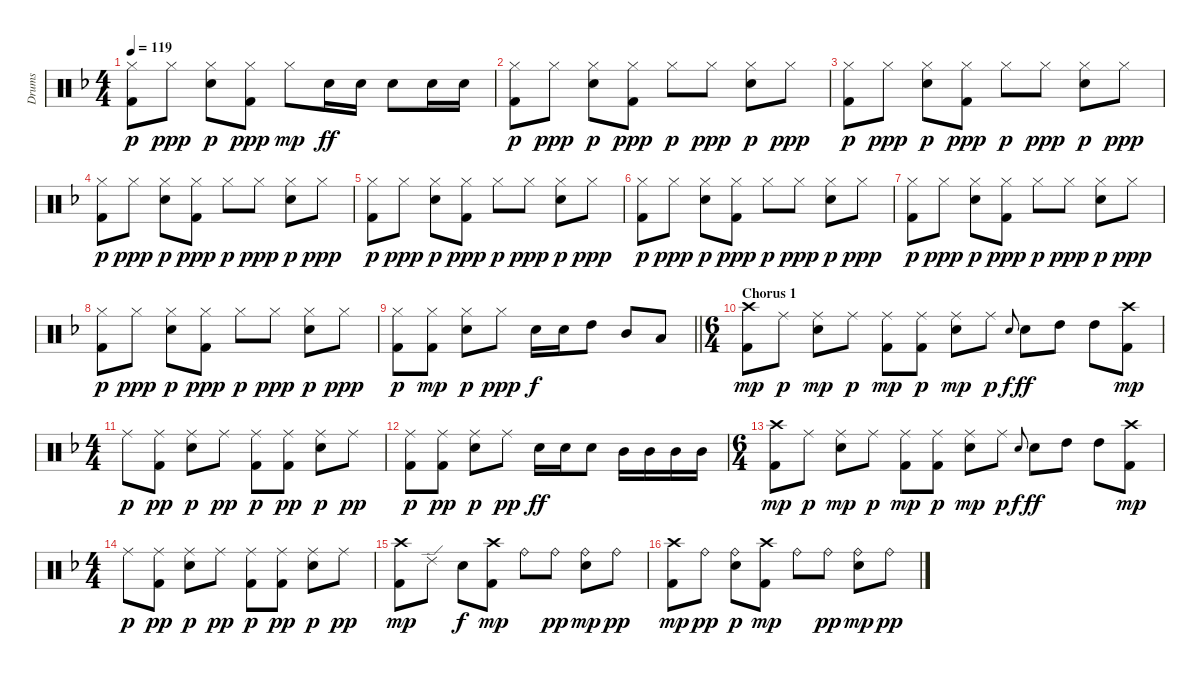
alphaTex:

\track ("Drums" "Drums") {instrument percussion}
\staff {score}
\articulation defaults
\ts (4 4)
\tempo 119
\clef neutral
\ks f
("Hi-Hat (closed)" "Kick (hit) 2").8{dy p} "Hi-Hat (closed)".8{dy ppp} ("Hi-Hat (closed)" "Electric Snare (hit)").8{dy p} ("Hi-Hat (closed)" "Kick (hit) 2").8{dy ppp} "Hi-Hat (closed)".8{dy mp} "Electric Snare (hit)".16{dy ff} "Electric Snare (hit)".16 "Electric Snare (hit)".8 "Electric Snare (hit)".16 "Electric Snare (hit)".16 |
("Hi-Hat (closed)" "Kick (hit) 2").8{dy p} "Hi-Hat (closed)".8{dy ppp} ("Hi-Hat (closed)" "Electric Snare (hit)").8{dy p} ("Hi-Hat (closed)" "Kick (hit) 2").8{dy ppp} "Hi-Hat (closed)".8{dy p} "Hi-Hat (closed)".8{dy ppp} ("Hi-Hat (closed)" "Electric Snare (hit)").8{dy p} "Hi-Hat (closed)".8{dy ppp} |
("Hi-Hat (closed)" "Kick (hit) 2").8{dy p} "Hi-Hat (closed)".8{dy ppp} ("Hi-Hat (closed)" "Electric Snare (hit)").8{dy p} ("Hi-Hat (closed)" "Kick (hit) 2").8{dy ppp} "Hi-Hat (closed)".8{dy p} "Hi-Hat (closed)".8{dy ppp} ("Hi-Hat (closed)" "Electric Snare (hit)").8{dy p} "Hi-Hat (closed)".8{dy ppp} |
("Hi-Hat (closed)" "Kick (hit) 2").8{dy p} "Hi-Hat (closed)".8{dy ppp} ("Hi-Hat (closed)" "Electric Snare (hit)").8{dy p} ("Hi-Hat (closed)" "Kick (hit) 2").8{dy ppp} "Hi-Hat (closed)".8{dy p} "Hi-Hat (closed)".8{dy ppp} ("Hi-Hat (closed)" "Electric Snare (hit)").8{dy p} "Hi-Hat (closed)".8{dy ppp} |
("Hi-Hat (closed)" "Kick (hit) 2").8{dy p} "Hi-Hat (closed)".8{dy ppp} ("Hi-Hat (closed)" "Electric Snare (hit)").8{dy p} ("Hi-Hat (closed)" "Kick (hit) 2").8{dy ppp} "Hi-Hat (closed)".8{dy p} "Hi-Hat (closed)".8{dy ppp} ("Hi-Hat (closed)" "Electric Snare (hit)").8{dy p} "Hi-Hat (closed)".8{dy ppp} |
("Hi-Hat (closed)" "Kick (hit) 2").8{dy p} "Hi-Hat (closed)".8{dy ppp} ("Hi-Hat (closed)" "Electric Snare (hit)").8{dy p} ("Hi-Hat (closed)" "Kick (hit) 2").8{dy ppp} "Hi-Hat (closed)".8{dy p} "Hi-Hat (closed)".8{dy ppp} ("Hi-Hat (closed)" "Electric Snare (hit)").8{dy p} "Hi-Hat (closed)".8{dy ppp} |
("Hi-Hat (closed)" "Kick (hit) 2").8{dy p} "Hi-Hat (closed)".8{dy ppp} ("Hi-Hat (closed)" "Electric Snare (hit)").8{dy p} ("Hi-Hat (closed)" "Kick (hit) 2").8{dy ppp} "Hi-Hat (closed)".8{dy p} "Hi-Hat (closed)".8{dy ppp} ("Hi-Hat (closed)" "Electric Snare (hit)").8{dy p} "Hi-Hat (closed)".8{dy ppp} |
("Hi-Hat (closed)" "Kick (hit) 2").8{dy p} "Hi-Hat (closed)".8{dy ppp} ("Hi-Hat (closed)" "Electric Snare (hit)").8{dy p} ("Hi-Hat (closed)" "Kick (hit) 2").8{dy ppp} "Hi-Hat (closed)".8{dy p} "Hi-Hat (closed)".8{dy ppp} ("Hi-Hat (closed)" "Electric Snare (hit)").8{dy p} "Hi-Hat (closed)".8{dy ppp} |
\barLineRight lightlight
("Hi-Hat (closed)" "Kick (hit) 2").8{dy p} ("Hi-Hat (closed)" "Kick (hit) 2").8{dy mp} ("Hi-Hat (closed)" "Electric Snare (hit)").8{dy p} "Hi-Hat (closed)".8{dy ppp} "Electric Snare (hit)".16{dy f} "Electric Snare (hit)".16 "High Tom (hit)".8 "Mid Tom (hit)".8 "Low Tom (hit)".8 |
\ts (6 4)
\section ("" "Chorus 1")
("Kick (hit) 2" "Crash high (hit)").8{dy mp} "Ride (middle)".8{dy p} ("Ride (middle)" "Electric Snare (hit)").8{dy mp} "Ride (middle)".8{dy p} ("Ride (middle)" "Kick (hit) 2").8{dy mp} ("Ride (middle)" "Kick (hit) 2").8{dy p} ("Ride (middle)" "Electric Snare (hit)").8{dy mp} "Ride (middle)".8{dy p} "Electric Snare (hit)".8{gr onbeat dy f} "Electric Snare (hit)".8{dy ff} "High Tom (hit)".8 "High Tom (hit)".8 ("Kick (hit) 2" "Crash high (hit)").8{dy mp} |
\ts (4 4)
"Ride (middle)".8{dy p} ("Ride (middle)" "Kick (hit) 2").8{dy pp} ("Ride (middle)" "Electric Snare (hit)").8{dy p} "Ride (middle)".8{dy pp} ("Ride (middle)" "Kick (hit) 2").8{dy p} ("Ride (middle)" "Kick (hit) 2").8{dy pp} ("Ride (middle)" "Electric Snare (hit)").8{dy p} "Ride (middle)".8{dy pp} |
("Ride (middle)" "Kick (hit) 2").8{dy p} ("Ride (middle)" "Kick (hit) 2").8{dy pp} ("Ride (middle)" "Electric Snare (hit)").8{dy p} "Ride (middle)".8{dy pp} "Electric Snare (hit)".16{dy ff} "Electric Snare (hit)".16 "Electric Snare (hit)".8 "Mid Tom (hit)".16 "Mid Tom (hit)".16 "Mid Tom (hit)".16 "Mid Tom (hit)".16 |
\ts (6 4)
("Kick (hit) 2" "Crash high (hit)").8{dy mp} "Ride (middle)".8{dy p} ("Ride (middle)" "Electric Snare (hit)").8{dy mp} "Ride (middle)".8{dy p} ("Ride (middle)" "Kick (hit) 2").8{dy mp} ("Ride (middle)" "Kick (hit) 2").8{dy p} ("Ride (middle)" "Electric Snare (hit)").8{dy mp} "Ride (middle)".8{dy p} "Electric Snare (hit)".8{gr onbeat dy f} "Electric Snare (hit)".8{dy ff} "High Tom (hit)".8 "High Tom (hit)".8 ("Kick (hit) 2" "Crash high (hit)").8{dy mp} |
\ts (4 4)
"Ride (middle)".8{dy p} ("Ride (middle)" "Kick (hit) 2").8{dy pp} ("Ride (middle)" "Electric Snare (hit)").8{dy p} "Ride (middle)".8{dy pp} ("Ride (middle)" "Kick (hit) 2").8{dy p} ("Ride (middle)" "Kick (hit) 2").8{dy pp} ("Ride (middle)" "Electric Snare (hit)").8{dy p} "Ride (middle)".8{dy pp} |
("Crash high (hit)" "Kick (hit) 2").8{dy mp} "Ride (edge) 2".8 "Electric Snare (hit)".8{dy f} ("Kick (hit) 2" "Crash high (hit)").8{dy mp} "Ride (bell)".8 "Ride (bell)".8{dy pp} ("Ride (bell)" "Electric Snare (hit)").8{dy mp} "Ride (bell)".8{dy pp} |
("Crash high (hit)" "Kick (hit) 2").8{dy mp} "Ride (bell)".8{dy pp} ("Electric Snare (hit)" "Ride (bell)").8{dy p} ("Kick (hit) 2" "Crash high (hit)").8{dy mp} "Ride (bell)".8 "Ride (bell)".8{dy pp} ("Ride (bell)" "Electric Snare (hit)").8{dy mp} "Ride (bell)".8{dy pp}
